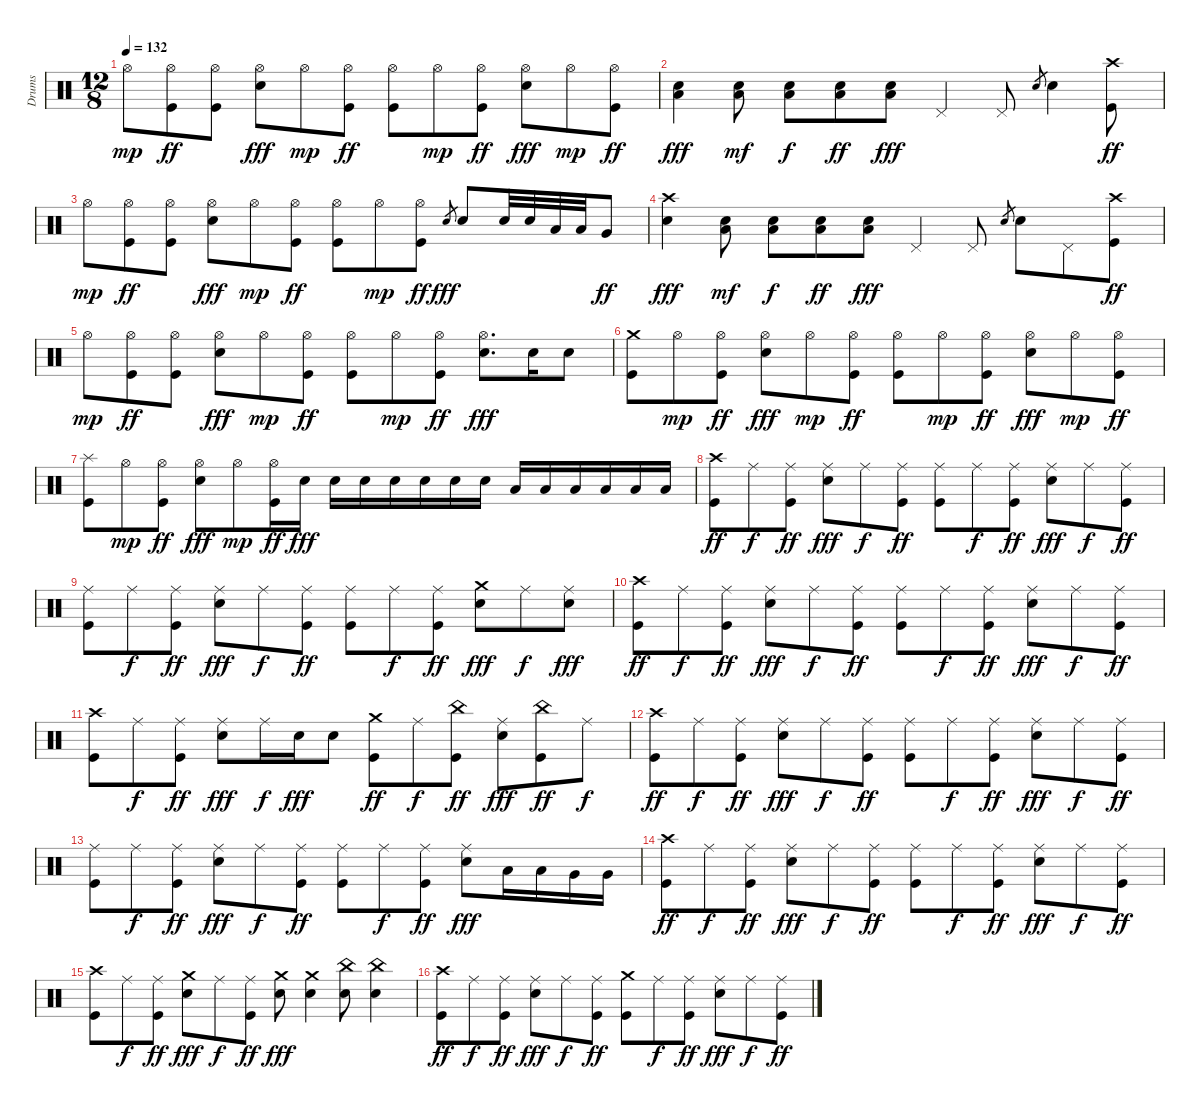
\track ("Drums" "Drums") {instrument percussion}
\staff {score}
\articulation defaults
\ts (12 8)
\tempo 132
\clef neutral
\ks c "Hi-Hat (open)".8{dy mp}
("Hi-Hat (open)" "Kick (hit)").8{dy ff} ("Hi-Hat (open)" "Kick (hit)").8 ("Hi-Hat (open)" "Snare (hit) 2").8{dy fff} "Hi-Hat (open)".8{dy mp} ("Hi-Hat (open)" "Kick (hit)").8{dy ff} ("Hi-Hat (open)" "Kick (hit)").8 "Hi-Hat (open)".8{dy mp} ("Hi-Hat (open)" "Kick (hit)").8{dy ff} ("Hi-Hat (open)" "Snare (hit) 2").8{dy fff} "Hi-Hat (open)".8{dy mp} ("Hi-Hat (open)" "Kick (hit)").8{dy ff} |
("Low Floor Tom (hit)" "Snare (hit) 2").4{dy fff} ("Low Floor Tom (hit)" "Snare (hit) 2").8{dy mf} ("Low Floor Tom (hit)" "Snare (hit) 2").8{dy f} ("Low Floor Tom (hit)" "Snare (hit) 2").8{dy ff} ("Low Floor Tom (hit)" "Snare (hit) 2").8{dy fff} "Pedal Hi-Hat (hit)".4 "Pedal Hi-Hat (hit)".8 "Snare (hit) 2".8{gr} "Snare (hit) 2".4 ("Crash high (hit)" "Kick (hit)").8{dy ff} |
"Hi-Hat (open)".8{dy mp} ("Hi-Hat (open)" "Kick (hit)").8{dy ff} ("Hi-Hat (open)" "Kick (hit)").8 ("Hi-Hat (open)" "Snare (hit) 2").8{dy fff} "Hi-Hat (open)".8{dy mp} ("Hi-Hat (open)" "Kick (hit)").8{dy ff} ("Hi-Hat (open)" "Kick (hit)").8 "Hi-Hat (open)".8{dy mp} ("Hi-Hat (open)" "Kick (hit)").8{dy ff} "Snare (hit) 2".8{gr dy fff} "Snare (hit) 2".8 "Snare (hit) 2".32 "Snare (hit) 2".32 "Low Tom (hit)".32 "Low Tom (hit)".32 "Very Low Tom (hit)".8{dy ff} |
("Crash high (hit)" "Snare (hit) 2").4{dy fff} ("Low Floor Tom (hit)" "Snare (hit) 2").8{dy mf} ("Low Floor Tom (hit)" "Snare (hit) 2").8{dy f} ("Low Floor Tom (hit)" "Snare (hit) 2").8{dy ff} ("Low Floor Tom (hit)" "Snare (hit) 2").8{dy fff} "Pedal Hi-Hat (hit)".4 "Pedal Hi-Hat (hit)".8 "Snare (hit) 2".8{gr} "Snare (hit) 2".8 "Pedal Hi-Hat (hit)".8 ("Crash high (hit)" "Kick (hit)").8{dy ff} |
"Hi-Hat (open)".8{dy mp} ("Hi-Hat (open)" "Kick (hit)").8{dy ff} ("Hi-Hat (open)" "Kick (hit)").8 ("Hi-Hat (open)" "Snare (hit) 2").8{dy fff} "Hi-Hat (open)".8{dy mp} ("Hi-Hat (open)" "Kick (hit)").8{dy ff} ("Hi-Hat (open)" "Kick (hit)").8 "Hi-Hat (open)".8{dy mp} ("Hi-Hat (open)" "Kick (hit)").8{dy ff} ("Hi-Hat (open)" "Snare (hit) 2").8{d dy fff} "Snare (hit) 2".16 "Snare (hit) 2".8 |
("Crash medium (hit)" "Kick (hit)").8 "Hi-Hat (open)".8{dy mp} ("Hi-Hat (open)" "Kick (hit)").8{dy ff} ("Hi-Hat (open)" "Snare (hit) 2").8{dy fff} "Hi-Hat (open)".8{dy mp} ("Hi-Hat (open)" "Kick (hit)").8{dy ff} ("Hi-Hat (open)" "Kick (hit)").8 "Hi-Hat (open)".8{dy mp} ("Hi-Hat (open)" "Kick (hit)").8{dy ff} ("Hi-Hat (open)" "Snare (hit) 2").8{dy fff} "Hi-Hat (open)".8{dy mp} ("Hi-Hat (open)" "Kick (hit)").8{dy ff} |
("Splash (hit)" "Kick (hit)").8 "Hi-Hat (open)".8{dy mp} ("Hi-Hat (open)" "Kick (hit)").8{dy ff} ("Hi-Hat (open)" "Snare (hit) 2").8{dy fff} "Hi-Hat (open)".8{dy mp} ("Hi-Hat (open)" "Kick (hit)").16{dy ff} "Snare (hit) 2".16{dy fff} "Snare (hit) 2".16 "Snare (hit) 2".16 "Snare (hit) 2".16 "Snare (hit) 2".16 "Snare (hit) 2".16 "Snare (hit) 2".16 "Low Tom (hit)".16 "Low Tom (hit)".16 "Low Tom (hit)".16 "Low Tom (hit)".16 "Low Tom (hit)".16 "Low Tom (hit)".16 |
("Crash high (hit)" "Kick (hit)").8{dy ff} "Ride (middle)".8{dy f} ("Ride (middle)" "Kick (hit)").8{dy ff} ("Ride (middle)" "Snare (hit) 2").8{dy fff} "Ride (middle)".8{dy f} ("Ride (middle)" "Kick (hit)").8{dy ff} ("Ride (middle)" "Kick (hit)").8 "Ride (middle)".8{dy f} ("Ride (middle)" "Kick (hit)").8{dy ff} ("Ride (middle)" "Snare (hit) 2").8{dy fff} "Ride (middle)".8{dy f} ("Ride (middle)" "Kick (hit)").8{dy ff} |
("Ride (middle)" "Kick (hit)").8 "Ride (middle)".8{dy f} ("Ride (middle)" "Kick (hit)").8{dy ff} ("Ride (middle)" "Snare (hit) 2").8{dy fff} "Ride (middle)".8{dy f} ("Ride (middle)" "Kick (hit)").8{dy ff} ("Ride (middle)" "Kick (hit)").8 "Ride (middle)".8{dy f} ("Ride (middle)" "Kick (hit)").8{dy ff} ("Crash medium (hit)" "Snare (hit) 2").8{dy fff} "Ride (middle)".8{dy f} ("Ride (middle)" "Snare (hit) 2").8{dy fff} |
("Crash high (hit)" "Kick (hit)").8{dy ff} "Ride (middle)".8{dy f} ("Ride (middle)" "Kick (hit)").8{dy ff} ("Ride (middle)" "Snare (hit) 2").8{dy fff} "Ride (middle)".8{dy f} ("Ride (middle)" "Kick (hit)").8{dy ff} ("Ride (middle)" "Kick (hit)").8 "Ride (middle)".8{dy f} ("Ride (middle)" "Kick (hit)").8{dy ff} ("Ride (middle)" "Snare (hit) 2").8{dy fff} "Ride (middle)".8{dy f} ("Ride (middle)" "Kick (hit)").8{dy ff} |
("Crash high (hit)" "Kick (hit)").8 "Ride (middle)".8{dy f} ("Ride (middle)" "Kick (hit)").8{dy ff} ("Ride (middle)" "Snare (hit) 2").8{dy fff} "Ride (middle)".16{dy f} "Snare (hit) 2".16{dy fff} "Snare (hit) 2".8 ("Crash medium (hit)" "Kick (hit)").8{dy ff} "Ride (middle)".8{dy f} ("China (hit)" "Kick (hit)").8{dy ff} ("Ride (middle)" "Snare (hit) 2").8{dy fff} ("China (hit)" "Kick (hit)").8{dy ff} "Ride (middle)".8{dy f} |
("Crash high (hit)" "Kick (hit)").8{dy ff} "Ride (middle)".8{dy f} ("Ride (middle)" "Kick (hit)").8{dy ff} ("Ride (middle)" "Snare (hit) 2").8{dy fff} "Ride (middle)".8{dy f} ("Ride (middle)" "Kick (hit)").8{dy ff} ("Ride (middle)" "Kick (hit)").8 "Ride (middle)".8{dy f} ("Ride (middle)" "Kick (hit)").8{dy ff} ("Ride (middle)" "Snare (hit) 2").8{dy fff} "Ride (middle)".8{dy f} ("Ride (middle)" "Kick (hit)").8{dy ff} |
("Ride (middle)" "Kick (hit)").8 "Ride (middle)".8{dy f} ("Ride (middle)" "Kick (hit)").8{dy ff} ("Ride (middle)" "Snare (hit) 2").8{dy fff} "Ride (middle)".8{dy f} ("Ride (middle)" "Kick (hit)").8{dy ff} ("Ride (middle)" "Kick (hit)").8 "Ride (middle)".8{dy f} ("Ride (middle)" "Kick (hit)").8{dy ff} ("Ride (middle)" "Snare (hit) 2").8{dy fff} "Low Tom (hit)".16 "Low Tom (hit)".16 "Very Low Tom (hit)".16 "Very Low Tom (hit)".16 |
("Crash high (hit)" "Kick (hit)").8{dy ff} "Ride (middle)".8{dy f} ("Ride (middle)" "Kick (hit)").8{dy ff} ("Ride (middle)" "Snare (hit) 2").8{dy fff} "Ride (middle)".8{dy f} ("Ride (middle)" "Kick (hit)").8{dy ff} ("Ride (middle)" "Kick (hit)").8 "Ride (middle)".8{dy f} ("Ride (middle)" "Kick (hit)").8{dy ff} ("Ride (middle)" "Snare (hit) 2").8{dy fff} "Ride (middle)".8{dy f} ("Ride (middle)" "Kick (hit)").8{dy ff} |
("Crash high (hit)" "Kick (hit)").8 "Ride (middle)".8{dy f} ("Ride (middle)" "Kick (hit)").8{dy ff} ("Crash medium (hit)" "Snare (hit) 2").8{dy fff} "Ride (middle)".8{dy f} ("Ride (middle)" "Kick (hit)").8{dy ff} ("Crash medium (hit)" "Snare (hit) 2").8{dy fff} ("Crash medium (hit)" "Snare (hit) 2").4 ("China (hit)" "Snare (hit) 2").8 ("China (hit)" "Snare (hit) 2").4 |
("Crash high (hit)" "Kick (hit)").8{dy ff} "Ride (middle)".8{dy f} ("Ride (middle)" "Kick (hit)").8{dy ff} ("Ride (middle)" "Snare (hit) 2").8{dy fff} "Ride (middle)".8{dy f} ("Ride (middle)" "Kick (hit)").8{dy ff} ("Crash medium (hit)" "Kick (hit)").8 "Ride (middle)".8{dy f} ("Ride (middle)" "Kick (hit)").8{dy ff} ("Ride (middle)" "Snare (hit) 2").8{dy fff} "Ride (middle)".8{dy f} ("Ride (middle)" "Kick (hit)").8{dy ff}
